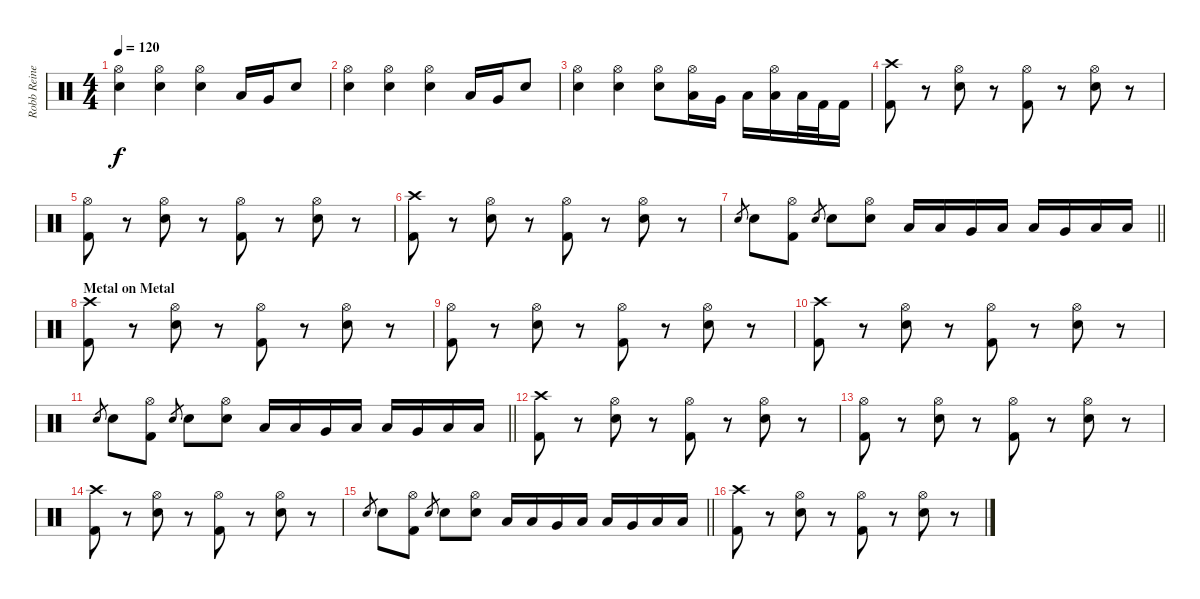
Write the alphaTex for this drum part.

\track ("Robb Reiner" "Robb Reine") {instrument percussion}
\staff {score}
\articulation defaults
\ts (4 4)
\tempo 120
\clef neutral
\ks c
("Snare (hit) 2" "Hi-Hat (open)").4{dy f} ("Snare (hit) 2" "Hi-Hat (open)").4 ("Snare (hit) 2" "Hi-Hat (open)").4 "Low Tom (hit)".16 "Very Low Tom (hit)".16 "Snare (hit) 2".8 |
("Snare (hit) 2" "Hi-Hat (open)").4 ("Snare (hit) 2" "Hi-Hat (open)").4 ("Snare (hit) 2" "Hi-Hat (open)").4 "Low Tom (hit)".16 "Very Low Tom (hit)".16 "Snare (hit) 2".8 |
("Snare (hit) 2" "Hi-Hat (open)").4 ("Snare (hit) 2" "Hi-Hat (open)").4 ("Snare (hit) 2" "Hi-Hat (open)").8 ("Low Tom (hit)" "Hi-Hat (open)").16 "Very Low Tom (hit)".16 "Low Tom (hit)".16 ("Low Floor Tom (hit)" "Hi-Hat (open)").16 "Low Tom (hit)".32 "Kick (hit) 2".32 "Kick (hit) 2".16 |
("Kick (hit) 2" "Crash high (hit)").8 r.8 ("Snare (hit) 2" "Hi-Hat (open)").8 r.8 ("Kick (hit) 2" "Hi-Hat (open)").8 r.8 ("Snare (hit) 2" "Hi-Hat (open)").8 r.8 |
("Kick (hit) 2" "Hi-Hat (open)").8 r.8 ("Snare (hit) 2" "Hi-Hat (open)").8 r.8 ("Kick (hit) 2" "Hi-Hat (open)").8 r.8 ("Snare (hit) 2" "Hi-Hat (open)").8 r.8 |
("Kick (hit) 2" "Crash high (hit)").8 r.8 ("Snare (hit) 2" "Hi-Hat (open)").8 r.8 ("Kick (hit) 2" "Hi-Hat (open)").8 r.8 ("Snare (hit) 2" "Hi-Hat (open)").8 r.8 |
\barLineRight lightlight "Snare (hit) 2".8{gr} "Snare (hit) 2".8
("Kick (hit) 2" "Hi-Hat (open)").8 "Snare (hit) 2".8{gr} "Snare (hit) 2".8 ("Snare (hit) 2" "Hi-Hat (open)").8 "Low Tom (hit)".16 "Low Tom (hit)".16 "Very Low Tom (hit)".16 "Low Floor Tom (hit)".16 "Low Tom (hit)".16 "Very Low Tom (hit)".16 "Low Floor Tom (hit)".16 "Low Tom (hit)".16 |
\section ("" "Metal on Metal")
("Kick (hit) 2" "Crash high (hit)").8 r.8 ("Snare (hit) 2" "Hi-Hat (open)").8 r.8 ("Kick (hit) 2" "Hi-Hat (open)").8 r.8 ("Snare (hit) 2" "Hi-Hat (open)").8 r.8 |
("Kick (hit) 2" "Hi-Hat (open)").8 r.8 ("Snare (hit) 2" "Hi-Hat (open)").8 r.8 ("Kick (hit) 2" "Hi-Hat (open)").8 r.8 ("Snare (hit) 2" "Hi-Hat (open)").8 r.8 |
("Kick (hit) 2" "Crash high (hit)").8 r.8 ("Snare (hit) 2" "Hi-Hat (open)").8 r.8 ("Kick (hit) 2" "Hi-Hat (open)").8 r.8 ("Snare (hit) 2" "Hi-Hat (open)").8 r.8 |
\barLineRight lightlight "Snare (hit) 2".8{gr} "Snare (hit) 2".8
("Kick (hit) 2" "Hi-Hat (open)").8 "Snare (hit) 2".8{gr} "Snare (hit) 2".8 ("Snare (hit) 2" "Hi-Hat (open)").8 "Low Tom (hit)".16 "Low Tom (hit)".16 "Very Low Tom (hit)".16 "Low Floor Tom (hit)".16 "Low Tom (hit)".16 "Very Low Tom (hit)".16 "Low Floor Tom (hit)".16 "Low Tom (hit)".16 |
("Kick (hit) 2" "Crash high (hit)").8 r.8 ("Snare (hit) 2" "Hi-Hat (open)").8 r.8 ("Kick (hit) 2" "Hi-Hat (open)").8 r.8 ("Snare (hit) 2" "Hi-Hat (open)").8 r.8 |
("Kick (hit) 2" "Hi-Hat (open)").8 r.8 ("Snare (hit) 2" "Hi-Hat (open)").8 r.8 ("Kick (hit) 2" "Hi-Hat (open)").8 r.8 ("Snare (hit) 2" "Hi-Hat (open)").8 r.8 |
("Kick (hit) 2" "Crash high (hit)").8 r.8 ("Snare (hit) 2" "Hi-Hat (open)").8 r.8 ("Kick (hit) 2" "Hi-Hat (open)").8 r.8 ("Snare (hit) 2" "Hi-Hat (open)").8 r.8 |
\barLineRight lightlight "Snare (hit) 2".8{gr} "Snare (hit) 2".8
("Kick (hit) 2" "Hi-Hat (open)").8 "Snare (hit) 2".8{gr} "Snare (hit) 2".8 ("Snare (hit) 2" "Hi-Hat (open)").8 "Low Tom (hit)".16 "Low Tom (hit)".16 "Very Low Tom (hit)".16 "Low Floor Tom (hit)".16 "Low Tom (hit)".16 "Very Low Tom (hit)".16 "Low Floor Tom (hit)".16 "Low Tom (hit)".16 |
("Kick (hit) 2" "Crash high (hit)").8 r.8 ("Snare (hit) 2" "Hi-Hat (open)").8 r.8 ("Kick (hit) 2" "Hi-Hat (open)").8 r.8 ("Snare (hit) 2" "Hi-Hat (open)").8 r.8
